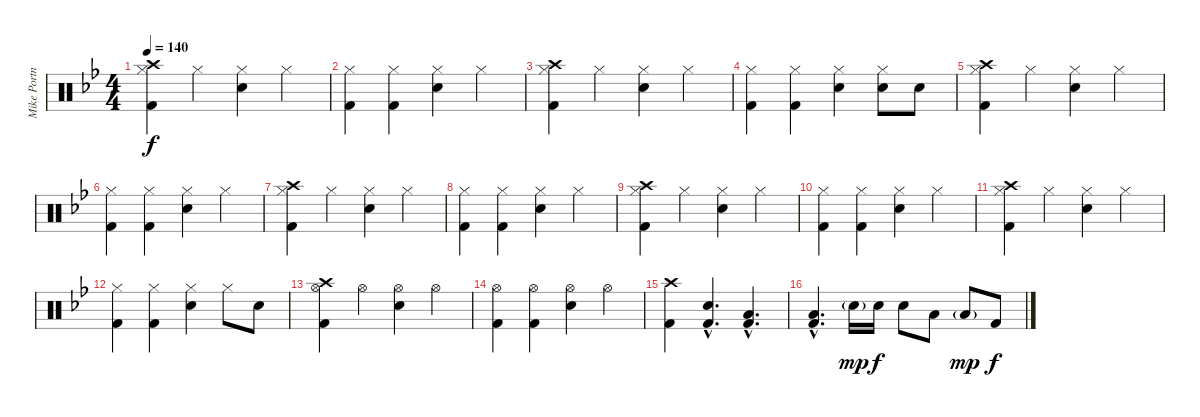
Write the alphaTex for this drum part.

\track ("Mike Portnoy - Drums" "Mike Portn") {instrument percussion}
\staff {score}
\articulation defaults
\ts (4 4)
\tempo 140
\clef neutral
\ks bb
("Hi-Hat (closed)" "Crash high (hit)" "Kick (hit) 2").4{dy f} "Hi-Hat (closed)".4 ("Hi-Hat (closed)" "Snare (hit) 2").4 "Hi-Hat (closed)".4 |
("Hi-Hat (closed)" "Kick (hit) 2").4 ("Hi-Hat (closed)" "Kick (hit) 2").4 ("Hi-Hat (closed)" "Snare (hit) 2").4 "Hi-Hat (closed)".4 |
("Hi-Hat (closed)" "Crash high (hit)" "Kick (hit) 2").4 "Hi-Hat (closed)".4 ("Hi-Hat (closed)" "Snare (hit) 2").4 "Hi-Hat (closed)".4 |
("Hi-Hat (closed)" "Kick (hit) 2").4 ("Hi-Hat (closed)" "Kick (hit) 2").4 ("Hi-Hat (closed)" "Snare (hit) 2").4 ("Hi-Hat (closed)" "Snare (hit) 2").8 "Snare (hit) 2".8 |
("Hi-Hat (closed)" "Crash high (hit)" "Kick (hit) 2").4 "Hi-Hat (closed)".4 ("Hi-Hat (closed)" "Snare (hit) 2").4 "Hi-Hat (closed)".4 |
("Hi-Hat (closed)" "Kick (hit) 2").4 ("Hi-Hat (closed)" "Kick (hit) 2").4 ("Hi-Hat (closed)" "Snare (hit) 2").4 "Hi-Hat (closed)".4 |
("Hi-Hat (closed)" "Crash high (hit)" "Kick (hit) 2").4 "Hi-Hat (closed)".4 ("Hi-Hat (closed)" "Snare (hit) 2").4 "Hi-Hat (closed)".4 |
("Hi-Hat (closed)" "Kick (hit) 2").4 ("Hi-Hat (closed)" "Kick (hit) 2").4 ("Hi-Hat (closed)" "Snare (hit) 2").4 "Hi-Hat (closed)".4 |
("Hi-Hat (closed)" "Crash high (hit)" "Kick (hit) 2").4 "Hi-Hat (closed)".4 ("Hi-Hat (closed)" "Snare (hit) 2").4 "Hi-Hat (closed)".4 |
("Hi-Hat (closed)" "Kick (hit) 2").4 ("Hi-Hat (closed)" "Kick (hit) 2").4 ("Hi-Hat (closed)" "Snare (hit) 2").4 "Hi-Hat (closed)".4 |
("Hi-Hat (closed)" "Crash high (hit)" "Kick (hit) 2").4 "Hi-Hat (closed)".4 ("Hi-Hat (closed)" "Snare (hit) 2").4 "Hi-Hat (closed)".4 |
("Hi-Hat (closed)" "Kick (hit) 2").4 ("Hi-Hat (closed)" "Kick (hit) 2").4 ("Hi-Hat (closed)" "Snare (hit) 2").4 "Hi-Hat (closed)".8 "Snare (hit) 2".8 |
("Hi-Hat (open)" "Crash high (hit)" "Kick (hit) 2").4 "Hi-Hat (open)".4 ("Hi-Hat (open)" "Snare (hit) 2").4 "Hi-Hat (open)".4 |
("Hi-Hat (open)" "Kick (hit) 2").4 ("Hi-Hat (open)" "Kick (hit) 2").4 ("Hi-Hat (open)" "Snare (hit) 2").4 "Hi-Hat (open)".4 |
("Crash high (hit)" "Kick (hit) 2").4 ("Snare (hit) 2"{hac} "Kick (hit) 2"{hac}).4{d} ("Low Tom (hit)"{hac} "Kick (hit) 2"{hac}).4{d} |
("Low Floor Tom (hit)"{hac} "Kick (hit) 2"{hac}).4{d} "Snare (hit) 2"{g}.16{dy mp} "Snare (hit) 2".16{dy f} "Snare (hit) 2".8 "Low Floor Tom (hit)".8 "Low Floor Tom (hit)"{g}.8{dy mp} "Kick (hit) 2".8{dy f}
